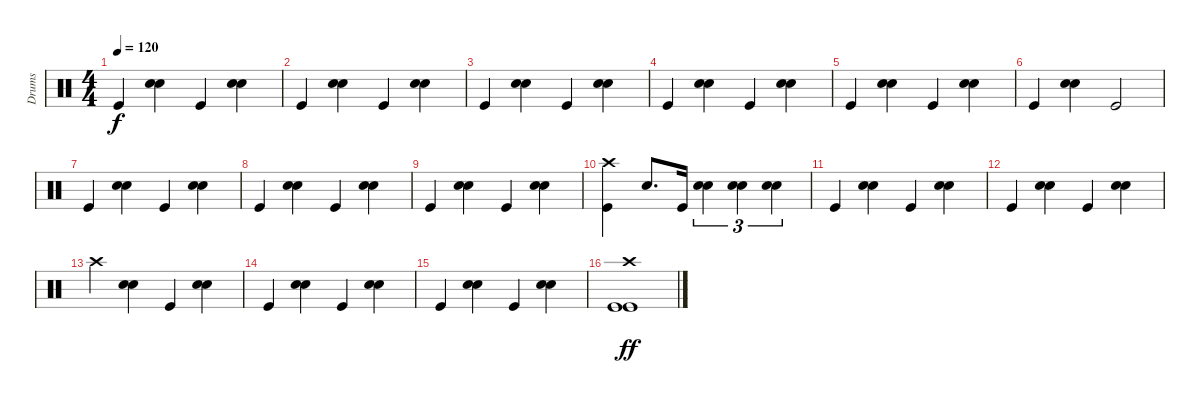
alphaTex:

\track ("Drums" "Drums") {instrument percussion}
\staff {score}
\articulation defaults
\ts (4 4)
\tempo 120
\clef neutral
\ks c "Kick (hit)".4{dy f}
("Snare (hit) 2" "Hand Clap (hit)").4 "Kick (hit)".4 ("Snare (hit) 2" "Hand Clap (hit)").4 |
"Kick (hit)".4 ("Snare (hit) 2" "Hand Clap (hit)").4 "Kick (hit)".4 ("Snare (hit) 2" "Hand Clap (hit)").4 |
"Kick (hit)".4 ("Snare (hit) 2" "Hand Clap (hit)").4 "Kick (hit)".4 ("Snare (hit) 2" "Hand Clap (hit)").4 |
"Kick (hit)".4 ("Snare (hit) 2" "Hand Clap (hit)").4 "Kick (hit)".4 ("Snare (hit) 2" "Hand Clap (hit)").4 |
"Kick (hit)".4 ("Snare (hit) 2" "Hand Clap (hit)").4 "Kick (hit)".4 ("Snare (hit) 2" "Hand Clap (hit)").4 |
"Kick (hit)".4 ("Snare (hit) 2" "Hand Clap (hit)").4 "Kick (hit)".2 |
"Kick (hit)".4 ("Snare (hit) 2" "Hand Clap (hit)").4 "Kick (hit)".4 ("Snare (hit) 2" "Hand Clap (hit)").4 |
"Kick (hit)".4 ("Snare (hit) 2" "Hand Clap (hit)").4 "Kick (hit)".4 ("Snare (hit) 2" "Hand Clap (hit)").4 |
"Kick (hit)".4 ("Snare (hit) 2" "Hand Clap (hit)").4 "Kick (hit)".4 ("Snare (hit) 2" "Hand Clap (hit)").4 |
("Kick (hit)" "Crash high (hit)").4 "Snare (hit) 2".8{d} "Kick (hit)".16 ("Snare (hit) 2" "Snare (hit) 2").4{tu (3 2)} ("Snare (hit) 2" "Snare (hit) 2").4{tu (3 2)} ("Snare (hit) 2" "Snare (hit) 2").4{tu (3 2)} |
"Kick (hit)".4 ("Snare (hit) 2" "Hand Clap (hit)").4 "Kick (hit)".4 ("Snare (hit) 2" "Hand Clap (hit)").4 |
"Kick (hit)".4 ("Snare (hit) 2" "Hand Clap (hit)").4 "Kick (hit)".4 ("Snare (hit) 2" "Hand Clap (hit)").4 |
"Crash high (hit)".4 ("Snare (hit) 2" "Hand Clap (hit)").4 "Kick (hit)".4 ("Snare (hit) 2" "Hand Clap (hit)").4 |
"Kick (hit)".4 ("Snare (hit) 2" "Hand Clap (hit)").4 "Kick (hit)".4 ("Snare (hit) 2" "Hand Clap (hit)").4 |
"Kick (hit)".4 ("Snare (hit) 2" "Hand Clap (hit)").4 "Kick (hit)".4 ("Snare (hit) 2" "Hand Clap (hit)").4 |
("Kick (hit)" "Kick (hit)" "Crash high (hit)").1{dy ff}
